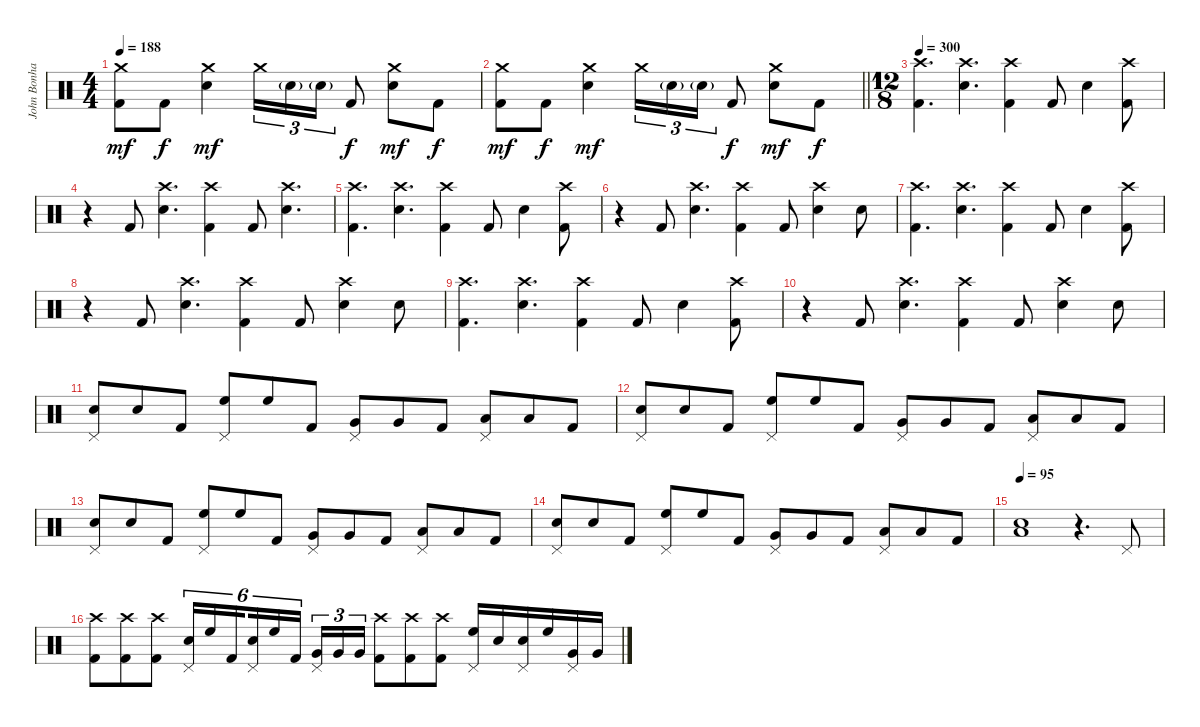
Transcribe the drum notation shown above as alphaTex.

\track ("John Bonham - Drums" "John Bonha") {instrument percussion}
\staff {score}
\articulation defaults
\ts (4 4)
\tempo 188
\clef neutral
\ks c
("Crash medium (hit)" "Kick (hit) 2").8{dy mf} "Kick (hit) 2".8{dy f} ("Crash medium (hit)" "Electric Snare (hit)").4{dy mf} "Crash medium (hit)".16{tu (3 2)} "Electric Snare (hit)"{g}.16{tu (3 2)} "Electric Snare (hit)"{g}.16{tu (3 2)} "Kick (hit) 2".8{dy f} ("Crash medium (hit)" "Electric Snare (hit)").8{dy mf} "Kick (hit) 2".8{dy f} |
\barLineRight lightlight
("Crash medium (hit)" "Kick (hit) 2").8{dy mf} "Kick (hit) 2".8{dy f} ("Crash medium (hit)" "Electric Snare (hit)").4{dy mf} "Crash medium (hit)".16{tu (3 2)} "Electric Snare (hit)"{g}.16{tu (3 2)} "Electric Snare (hit)"{g}.16{tu (3 2)} "Kick (hit) 2".8{dy f} ("Crash medium (hit)" "Electric Snare (hit)").8{dy mf} "Kick (hit) 2".8{dy f} |
\ts (12 8)
\tempo 300
("Crash high (hit)" "Kick (hit) 2").4{d volume 16} ("Crash high (hit)" "Electric Snare (hit)").4{d} ("Crash high (hit)" "Kick (hit) 2").4 "Kick (hit) 2".8 "Electric Snare (hit)".4 ("Crash high (hit)" "Kick (hit) 2").8 |
r.4 "Kick (hit) 2".8 ("Crash high (hit)" "Electric Snare (hit)").4{d} ("Crash high (hit)" "Kick (hit) 2").4 "Kick (hit) 2".8 ("Crash high (hit)" "Electric Snare (hit)").4{d} |
("Crash high (hit)" "Kick (hit) 2").4{d} ("Crash high (hit)" "Electric Snare (hit)").4{d} ("Crash high (hit)" "Kick (hit) 2").4 "Kick (hit) 2".8 "Electric Snare (hit)".4 ("Crash high (hit)" "Kick (hit) 2").8 |
r.4 "Kick (hit) 2".8 ("Crash high (hit)" "Electric Snare (hit)").4{d} ("Crash high (hit)" "Kick (hit) 2").4 "Kick (hit) 2".8 ("Crash high (hit)" "Electric Snare (hit)").4 "Electric Snare (hit)".8 |
("Crash high (hit)" "Kick (hit) 2").4{d} ("Crash high (hit)" "Electric Snare (hit)").4{d} ("Crash high (hit)" "Kick (hit) 2").4 "Kick (hit) 2".8 "Electric Snare (hit)".4 ("Crash high (hit)" "Kick (hit) 2").8 |
r.4 "Kick (hit) 2".8 ("Crash high (hit)" "Electric Snare (hit)").4{d} ("Crash high (hit)" "Kick (hit) 2").4 "Kick (hit) 2".8 ("Crash high (hit)" "Electric Snare (hit)").4 "Electric Snare (hit)".8 |
("Crash high (hit)" "Kick (hit) 2").4{d} ("Crash high (hit)" "Electric Snare (hit)").4{d} ("Crash high (hit)" "Kick (hit) 2").4 "Kick (hit) 2".8 "Electric Snare (hit)".4 ("Crash high (hit)" "Kick (hit) 2").8 |
r.4 "Kick (hit) 2".8 ("Crash high (hit)" "Electric Snare (hit)").4{d} ("Crash high (hit)" "Kick (hit) 2").4 "Kick (hit) 2".8 ("Crash high (hit)" "Electric Snare (hit)").4 "Electric Snare (hit)".8 |
("Pedal Hi-Hat (hit)" "Electric Snare (hit)").8 "Electric Snare (hit)".8 "Kick (hit) 2".8 ("Pedal Hi-Hat (hit)" "High Floor Tom (hit)").8 "High Floor Tom (hit)".8 "Kick (hit) 2".8 ("Pedal Hi-Hat (hit)" "Very Low Tom (hit)").8 "Very Low Tom (hit)".8 "Kick (hit) 2".8 ("Pedal Hi-Hat (hit)" "Low Floor Tom (hit)").8 "Low Floor Tom (hit)".8 "Kick (hit) 2".8 |
("Pedal Hi-Hat (hit)" "Electric Snare (hit)").8 "Electric Snare (hit)".8 "Kick (hit) 2".8 ("Pedal Hi-Hat (hit)" "High Floor Tom (hit)").8 "High Floor Tom (hit)".8 "Kick (hit) 2".8 ("Pedal Hi-Hat (hit)" "Very Low Tom (hit)").8 "Very Low Tom (hit)".8 "Kick (hit) 2".8 ("Pedal Hi-Hat (hit)" "Low Floor Tom (hit)").8 "Low Floor Tom (hit)".8 "Kick (hit) 2".8 |
("Pedal Hi-Hat (hit)" "Electric Snare (hit)").8 "Electric Snare (hit)".8 "Kick (hit) 2".8 ("Pedal Hi-Hat (hit)" "High Floor Tom (hit)").8 "High Floor Tom (hit)".8 "Kick (hit) 2".8 ("Pedal Hi-Hat (hit)" "Very Low Tom (hit)").8 "Very Low Tom (hit)".8 "Kick (hit) 2".8 ("Pedal Hi-Hat (hit)" "Low Floor Tom (hit)").8 "Low Floor Tom (hit)".8 "Kick (hit) 2".8 |
("Pedal Hi-Hat (hit)" "Electric Snare (hit)").8 "Electric Snare (hit)".8 "Kick (hit) 2".8 ("Pedal Hi-Hat (hit)" "High Floor Tom (hit)").8 "High Floor Tom (hit)".8 "Kick (hit) 2".8 ("Pedal Hi-Hat (hit)" "Very Low Tom (hit)").8 "Very Low Tom (hit)".8 "Kick (hit) 2".8 ("Pedal Hi-Hat (hit)" "Low Floor Tom (hit)").8 "Low Floor Tom (hit)".8 "Kick (hit) 2".8 |
\tempo 95
("Low Floor Tom (hit)" "Electric Snare (hit)").1 r.4{d} "Pedal Hi-Hat (hit)".8 |
("Crash high (hit)" "Kick (hit) 2").8 ("Crash high (hit)" "Kick (hit) 2").8 ("Crash high (hit)" "Kick (hit) 2").8 ("Pedal Hi-Hat (hit)" "Snare (hit) 2").16{tu (6 4)} "High Floor Tom (hit)".16{tu (6 4)} "Kick (hit) 2".16{tu (6 4) beam splitsecondary} ("Pedal Hi-Hat (hit)" "Snare (hit) 2").16{tu (6 4)} "High Floor Tom (hit)".16{tu (6 4)} "Kick (hit) 2".16{tu (6 4) beam splitsecondary} ("Pedal Hi-Hat (hit)" "Very Low Tom (hit)").16{tu (3 2)} "Very Low Tom (hit)".16{tu (3 2)} "Very Low Tom (hit)".16{tu (3 2)} ("Crash high (hit)" "Kick (hit) 2").8 ("Crash high (hit)" "Kick (hit) 2").8 ("Crash high (hit)" "Kick (hit) 2").8 ("Pedal Hi-Hat (hit)" "High Floor Tom (hit)").16 "Snare (hit) 2".16 ("Pedal Hi-Hat (hit)" "Snare (hit) 2").16 "High Floor Tom (hit)".16 ("Pedal Hi-Hat (hit)" "Very Low Tom (hit)").16 "Very Low Tom (hit)".16
